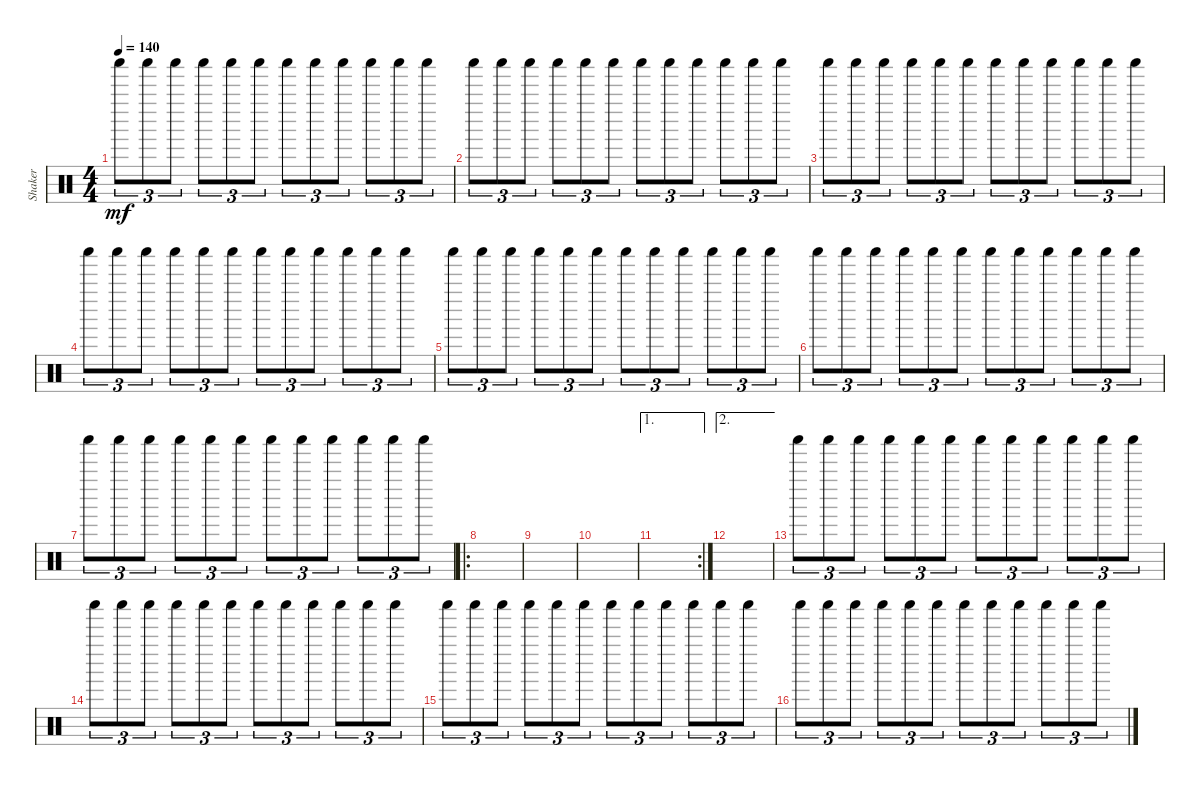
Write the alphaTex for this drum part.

\track ("Shaker" "Shaker") {instrument percussion}
\staff {score}
\articulation defaults
\ts (4 4)
\tempo 140
\clef neutral
\ks c "Shaker (hit)".8{tu (3 2) dy mf} "Shaker (hit)".8{tu (3 2)} "Shaker (hit)".8{tu (3 2)} "Shaker (hit)".8{tu (3 2)} "Shaker (hit)".8{tu (3 2)} "Shaker (hit)".8{tu (3 2)} "Shaker (hit)".8{tu (3 2)} "Shaker (hit)".8{tu (3 2)} "Shaker (hit)".8{tu (3 2)} "Shaker (hit)".8{tu (3 2)} "Shaker (hit)".8{tu (3 2)} "Shaker (hit)".8{tu (3 2)}
|
"Shaker (hit)".8{tu (3 2)} "Shaker (hit)".8{tu (3 2)} "Shaker (hit)".8{tu (3 2)} "Shaker (hit)".8{tu (3 2)} "Shaker (hit)".8{tu (3 2)} "Shaker (hit)".8{tu (3 2)} "Shaker (hit)".8{tu (3 2)} "Shaker (hit)".8{tu (3 2)} "Shaker (hit)".8{tu (3 2)} "Shaker (hit)".8{tu (3 2)} "Shaker (hit)".8{tu (3 2)} "Shaker (hit)".8{tu (3 2)} |
"Shaker (hit)".8{tu (3 2)} "Shaker (hit)".8{tu (3 2)} "Shaker (hit)".8{tu (3 2)} "Shaker (hit)".8{tu (3 2)} "Shaker (hit)".8{tu (3 2)} "Shaker (hit)".8{tu (3 2)} "Shaker (hit)".8{tu (3 2)} "Shaker (hit)".8{tu (3 2)} "Shaker (hit)".8{tu (3 2)} "Shaker (hit)".8{tu (3 2)} "Shaker (hit)".8{tu (3 2)} "Shaker (hit)".8{tu (3 2)} |
"Shaker (hit)".8{tu (3 2)} "Shaker (hit)".8{tu (3 2)} "Shaker (hit)".8{tu (3 2)} "Shaker (hit)".8{tu (3 2)} "Shaker (hit)".8{tu (3 2)} "Shaker (hit)".8{tu (3 2)} "Shaker (hit)".8{tu (3 2)} "Shaker (hit)".8{tu (3 2)} "Shaker (hit)".8{tu (3 2)} "Shaker (hit)".8{tu (3 2)} "Shaker (hit)".8{tu (3 2)} "Shaker (hit)".8{tu (3 2)} |
"Shaker (hit)".8{tu (3 2)} "Shaker (hit)".8{tu (3 2)} "Shaker (hit)".8{tu (3 2)} "Shaker (hit)".8{tu (3 2)} "Shaker (hit)".8{tu (3 2)} "Shaker (hit)".8{tu (3 2)} "Shaker (hit)".8{tu (3 2)} "Shaker (hit)".8{tu (3 2)} "Shaker (hit)".8{tu (3 2)} "Shaker (hit)".8{tu (3 2)} "Shaker (hit)".8{tu (3 2)} "Shaker (hit)".8{tu (3 2)} |
"Shaker (hit)".8{tu (3 2)} "Shaker (hit)".8{tu (3 2)} "Shaker (hit)".8{tu (3 2)} "Shaker (hit)".8{tu (3 2)} "Shaker (hit)".8{tu (3 2)} "Shaker (hit)".8{tu (3 2)} "Shaker (hit)".8{tu (3 2)} "Shaker (hit)".8{tu (3 2)} "Shaker (hit)".8{tu (3 2)} "Shaker (hit)".8{tu (3 2)} "Shaker (hit)".8{tu (3 2)} "Shaker (hit)".8{tu (3 2)} |
"Shaker (hit)".8{tu (3 2)} "Shaker (hit)".8{tu (3 2)} "Shaker (hit)".8{tu (3 2)} "Shaker (hit)".8{tu (3 2)} "Shaker (hit)".8{tu (3 2)} "Shaker (hit)".8{tu (3 2)} "Shaker (hit)".8{tu (3 2)} "Shaker (hit)".8{tu (3 2)} "Shaker (hit)".8{tu (3 2)} "Shaker (hit)".8{tu (3 2)} "Shaker (hit)".8{tu (3 2)} "Shaker (hit)".8{tu (3 2)} |
\ro
|
|
|
\ae 1
\rc 2
|
\ae 2
|
"Shaker (hit)".8{tu (3 2)} "Shaker (hit)".8{tu (3 2)} "Shaker (hit)".8{tu (3 2)} "Shaker (hit)".8{tu (3 2)} "Shaker (hit)".8{tu (3 2)} "Shaker (hit)".8{tu (3 2)} "Shaker (hit)".8{tu (3 2)} "Shaker (hit)".8{tu (3 2)} "Shaker (hit)".8{tu (3 2)} "Shaker (hit)".8{tu (3 2)} "Shaker (hit)".8{tu (3 2)} "Shaker (hit)".8{tu (3 2)} |
"Shaker (hit)".8{tu (3 2)} "Shaker (hit)".8{tu (3 2)} "Shaker (hit)".8{tu (3 2)} "Shaker (hit)".8{tu (3 2)} "Shaker (hit)".8{tu (3 2)} "Shaker (hit)".8{tu (3 2)} "Shaker (hit)".8{tu (3 2)} "Shaker (hit)".8{tu (3 2)} "Shaker (hit)".8{tu (3 2)} "Shaker (hit)".8{tu (3 2)} "Shaker (hit)".8{tu (3 2)} "Shaker (hit)".8{tu (3 2)} |
"Shaker (hit)".8{tu (3 2)} "Shaker (hit)".8{tu (3 2)} "Shaker (hit)".8{tu (3 2)} "Shaker (hit)".8{tu (3 2)} "Shaker (hit)".8{tu (3 2)} "Shaker (hit)".8{tu (3 2)} "Shaker (hit)".8{tu (3 2)} "Shaker (hit)".8{tu (3 2)} "Shaker (hit)".8{tu (3 2)} "Shaker (hit)".8{tu (3 2)} "Shaker (hit)".8{tu (3 2)} "Shaker (hit)".8{tu (3 2)} |
"Shaker (hit)".8{tu (3 2)} "Shaker (hit)".8{tu (3 2)} "Shaker (hit)".8{tu (3 2)} "Shaker (hit)".8{tu (3 2)} "Shaker (hit)".8{tu (3 2)} "Shaker (hit)".8{tu (3 2)} "Shaker (hit)".8{tu (3 2)} "Shaker (hit)".8{tu (3 2)} "Shaker (hit)".8{tu (3 2)} "Shaker (hit)".8{tu (3 2)} "Shaker (hit)".8{tu (3 2)} "Shaker (hit)".8{tu (3 2)}
